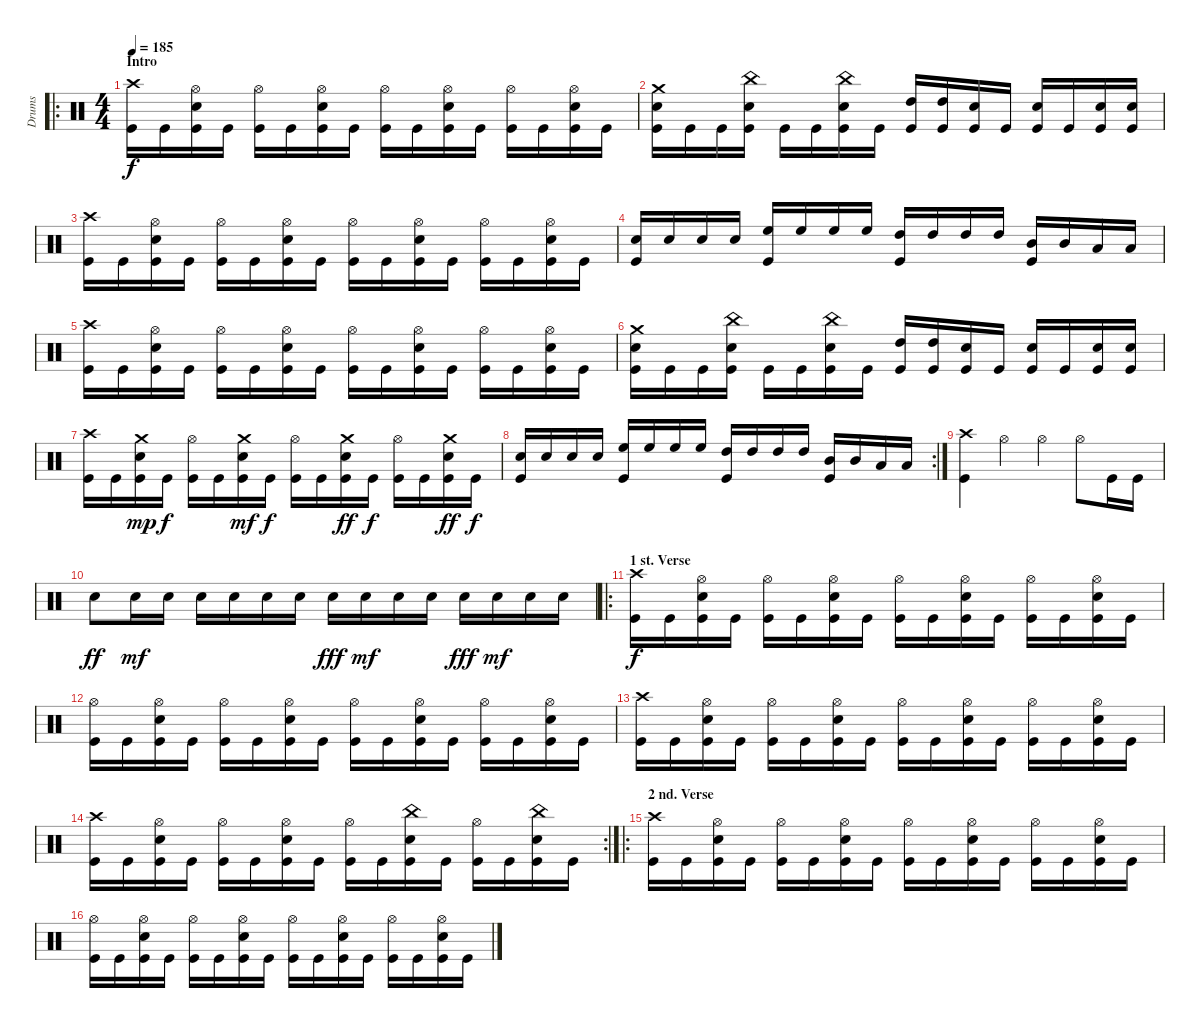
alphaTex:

\track ("Drums" "Drums") {instrument percussion}
\staff {score}
\articulation defaults
\ro
\ts (4 4)
\section ("" "Intro")
\tempo 185
\clef neutral
\ks c
("Crash high (hit)" "Kick (hit)").16{dy f} "Kick (hit)".16 ("Hi-Hat (open)" "Electric Snare (hit)" "Kick (hit)").16 "Kick (hit)".16 ("Hi-Hat (open)" "Kick (hit)").16 "Kick (hit)".16 ("Hi-Hat (open)" "Electric Snare (hit)" "Kick (hit)").16 "Kick (hit)".16 ("Hi-Hat (open)" "Kick (hit)").16 "Kick (hit)".16 ("Hi-Hat (open)" "Electric Snare (hit)" "Kick (hit)").16 "Kick (hit)".16 ("Hi-Hat (open)" "Kick (hit)").16 "Kick (hit)".16 ("Hi-Hat (open)" "Electric Snare (hit)" "Kick (hit)").16 "Kick (hit)".16 |
("Crash medium (hit)" "Electric Snare (hit)" "Kick (hit)").16 "Kick (hit)".16 "Kick (hit)".16 ("China (hit)" "Electric Snare (hit)" "Kick (hit)").16 "Kick (hit)".16 "Kick (hit)".16 ("China (hit)" "Electric Snare (hit)" "Kick (hit)").16 "Kick (hit)".16 ("High Tom (hit)" "Kick (hit)").16 ("High Tom (hit)" "Kick (hit)").16 ("Electric Snare (hit)" "Kick (hit)").16 "Kick (hit)".16 ("Electric Snare (hit)" "Kick (hit)").16 "Kick (hit)".16 ("Electric Snare (hit)" "Kick (hit)").16 ("Electric Snare (hit)" "Kick (hit)").16 |
("Crash high (hit)" "Kick (hit)").16 "Kick (hit)".16 ("Hi-Hat (open)" "Electric Snare (hit)" "Kick (hit)").16 "Kick (hit)".16 ("Hi-Hat (open)" "Kick (hit)").16 "Kick (hit)".16 ("Hi-Hat (open)" "Electric Snare (hit)" "Kick (hit)").16 "Kick (hit)".16 ("Hi-Hat (open)" "Kick (hit)").16 "Kick (hit)".16 ("Hi-Hat (open)" "Electric Snare (hit)" "Kick (hit)").16 "Kick (hit)".16 ("Hi-Hat (open)" "Kick (hit)").16 "Kick (hit)".16 ("Hi-Hat (open)" "Electric Snare (hit)" "Kick (hit)").16 "Kick (hit)".16 |
("Electric Snare (hit)" "Kick (hit)").16 "Electric Snare (hit)".16 "Electric Snare (hit)".16 "Electric Snare (hit)".16 ("High Floor Tom (hit)" "Kick (hit)").16 "High Floor Tom (hit)".16 "High Floor Tom (hit)".16 "High Floor Tom (hit)".16 ("High Tom (hit)" "Kick (hit)").16 "High Tom (hit)".16 "High Tom (hit)".16 "High Tom (hit)".16 ("Mid Tom (hit)" "Kick (hit)").16 "Mid Tom (hit)".16 "Low Tom (hit)".16 "Low Tom (hit)".16 |
("Crash high (hit)" "Kick (hit)").16 "Kick (hit)".16 ("Hi-Hat (open)" "Electric Snare (hit)" "Kick (hit)").16 "Kick (hit)".16 ("Hi-Hat (open)" "Kick (hit)").16 "Kick (hit)".16 ("Hi-Hat (open)" "Electric Snare (hit)" "Kick (hit)").16 "Kick (hit)".16 ("Hi-Hat (open)" "Kick (hit)").16 "Kick (hit)".16 ("Hi-Hat (open)" "Electric Snare (hit)" "Kick (hit)").16 "Kick (hit)".16 ("Hi-Hat (open)" "Kick (hit)").16 "Kick (hit)".16 ("Hi-Hat (open)" "Electric Snare (hit)" "Kick (hit)").16 "Kick (hit)".16 |
("Crash medium (hit)" "Electric Snare (hit)" "Kick (hit)").16 "Kick (hit)".16 "Kick (hit)".16 ("China (hit)" "Electric Snare (hit)" "Kick (hit)").16 "Kick (hit)".16 "Kick (hit)".16 ("China (hit)" "Electric Snare (hit)" "Kick (hit)").16 "Kick (hit)".16 ("High Tom (hit)" "Kick (hit)").16 ("High Tom (hit)" "Kick (hit)").16 ("Electric Snare (hit)" "Kick (hit)").16 "Kick (hit)".16 ("Electric Snare (hit)" "Kick (hit)").16 "Kick (hit)".16 ("Electric Snare (hit)" "Kick (hit)").16 ("Electric Snare (hit)" "Kick (hit)").16 |
("Crash high (hit)" "Kick (hit)").16 "Kick (hit)".16 ("Crash medium (hit)" "Electric Snare (hit)" "Kick (hit)").16{dy mp} "Kick (hit)".16{dy f} ("Hi-Hat (open)" "Kick (hit)").16 "Kick (hit)".16 ("Crash medium (hit)" "Electric Snare (hit)" "Kick (hit)").16{dy mf} "Kick (hit)".16{dy f} ("Hi-Hat (open)" "Kick (hit)").16 "Kick (hit)".16 ("Crash medium (hit)" "Electric Snare (hit)" "Kick (hit)").16{dy ff} "Kick (hit)".16{dy f} ("Hi-Hat (open)" "Kick (hit)").16 "Kick (hit)".16 ("Crash medium (hit)" "Electric Snare (hit)" "Kick (hit)").16{dy ff} "Kick (hit)".16{dy f} |
\rc 2
("Electric Snare (hit)" "Kick (hit)").16 "Electric Snare (hit)".16 "Electric Snare (hit)".16 "Electric Snare (hit)".16 ("High Floor Tom (hit)" "Kick (hit)").16 "High Floor Tom (hit)".16 "High Floor Tom (hit)".16 "High Floor Tom (hit)".16 ("High Tom (hit)" "Kick (hit)").16 "High Tom (hit)".16 "High Tom (hit)".16 "High Tom (hit)".16 ("Mid Tom (hit)" "Kick (hit)").16 "Mid Tom (hit)".16 "Low Tom (hit)".16 "Low Tom (hit)".16 |
("Crash high (hit)" "Kick (hit)").4 "Hi-Hat (open)".4 "Hi-Hat (open)".4 "Hi-Hat (open)".8 "Kick (hit)".16 "Kick (hit)".16 |
"Electric Snare (hit)".8{dy ff} "Electric Snare (hit)".16{dy mf} "Electric Snare (hit)".16 "Electric Snare (hit)".16 "Electric Snare (hit)".16 "Electric Snare (hit)".16 "Electric Snare (hit)".16 "Electric Snare (hit)".16{dy fff} "Electric Snare (hit)".16{dy mf} "Electric Snare (hit)".16 "Electric Snare (hit)".16 "Electric Snare (hit)".16{dy fff} "Electric Snare (hit)".16{dy mf} "Electric Snare (hit)".16 "Electric Snare (hit)".16 |
\ro
\section ("" "1 st. Verse")
("Crash high (hit)" "Kick (hit)").16{dy f} "Kick (hit)".16 ("Hi-Hat (open)" "Electric Snare (hit)" "Kick (hit)").16 "Kick (hit)".16 ("Hi-Hat (open)" "Kick (hit)").16 "Kick (hit)".16 ("Hi-Hat (open)" "Electric Snare (hit)" "Kick (hit)").16 "Kick (hit)".16 ("Hi-Hat (open)" "Kick (hit)").16 "Kick (hit)".16 ("Hi-Hat (open)" "Electric Snare (hit)" "Kick (hit)").16 "Kick (hit)".16 ("Hi-Hat (open)" "Kick (hit)").16 "Kick (hit)".16 ("Hi-Hat (open)" "Electric Snare (hit)" "Kick (hit)").16 "Kick (hit)".16 |
("Hi-Hat (open)" "Kick (hit)").16 "Kick (hit)".16 ("Hi-Hat (open)" "Electric Snare (hit)" "Kick (hit)").16 "Kick (hit)".16 ("Hi-Hat (open)" "Kick (hit)").16 "Kick (hit)".16 ("Hi-Hat (open)" "Electric Snare (hit)" "Kick (hit)").16 "Kick (hit)".16 ("Hi-Hat (open)" "Kick (hit)").16 "Kick (hit)".16 ("Hi-Hat (open)" "Electric Snare (hit)" "Kick (hit)").16 "Kick (hit)".16 ("Hi-Hat (open)" "Kick (hit)").16 "Kick (hit)".16 ("Hi-Hat (open)" "Electric Snare (hit)" "Kick (hit)").16 "Kick (hit)".16 |
("Crash high (hit)" "Kick (hit)").16 "Kick (hit)".16 ("Hi-Hat (open)" "Electric Snare (hit)" "Kick (hit)").16 "Kick (hit)".16 ("Hi-Hat (open)" "Kick (hit)").16 "Kick (hit)".16 ("Hi-Hat (open)" "Electric Snare (hit)" "Kick (hit)").16 "Kick (hit)".16 ("Hi-Hat (open)" "Kick (hit)").16 "Kick (hit)".16 ("Hi-Hat (open)" "Electric Snare (hit)" "Kick (hit)").16 "Kick (hit)".16 ("Hi-Hat (open)" "Kick (hit)").16 "Kick (hit)".16 ("Hi-Hat (open)" "Electric Snare (hit)" "Kick (hit)").16 "Kick (hit)".16 |
\rc 2
("Crash high (hit)" "Kick (hit)").16 "Kick (hit)".16 ("Hi-Hat (open)" "Electric Snare (hit)" "Kick (hit)").16 "Kick (hit)".16 ("Hi-Hat (open)" "Kick (hit)").16 "Kick (hit)".16 ("Hi-Hat (open)" "Electric Snare (hit)" "Kick (hit)").16 "Kick (hit)".16 ("Hi-Hat (open)" "Kick (hit)").16 "Kick (hit)".16 ("China (hit)" "Electric Snare (hit)" "Kick (hit)").16 "Kick (hit)".16 ("Hi-Hat (open)" "Kick (hit)").16 "Kick (hit)".16 ("China (hit)" "Electric Snare (hit)" "Kick (hit)").16 "Kick (hit)".16 |
\ro
\section ("" "2 nd. Verse")
("Crash high (hit)" "Kick (hit)").16 "Kick (hit)".16 ("Hi-Hat (open)" "Electric Snare (hit)" "Kick (hit)").16 "Kick (hit)".16 ("Hi-Hat (open)" "Kick (hit)").16 "Kick (hit)".16 ("Hi-Hat (open)" "Electric Snare (hit)" "Kick (hit)").16 "Kick (hit)".16 ("Hi-Hat (open)" "Kick (hit)").16 "Kick (hit)".16 ("Hi-Hat (open)" "Electric Snare (hit)" "Kick (hit)").16 "Kick (hit)".16 ("Hi-Hat (open)" "Kick (hit)").16 "Kick (hit)".16 ("Hi-Hat (open)" "Electric Snare (hit)" "Kick (hit)").16 "Kick (hit)".16 |
("Hi-Hat (open)" "Kick (hit)").16 "Kick (hit)".16 ("Hi-Hat (open)" "Electric Snare (hit)" "Kick (hit)").16 "Kick (hit)".16 ("Hi-Hat (open)" "Kick (hit)").16 "Kick (hit)".16 ("Hi-Hat (open)" "Electric Snare (hit)" "Kick (hit)").16 "Kick (hit)".16 ("Hi-Hat (open)" "Kick (hit)").16 "Kick (hit)".16 ("Hi-Hat (open)" "Electric Snare (hit)" "Kick (hit)").16 "Kick (hit)".16 ("Hi-Hat (open)" "Kick (hit)").16 "Kick (hit)".16 ("Hi-Hat (open)" "Electric Snare (hit)" "Kick (hit)").16 "Kick (hit)".16
